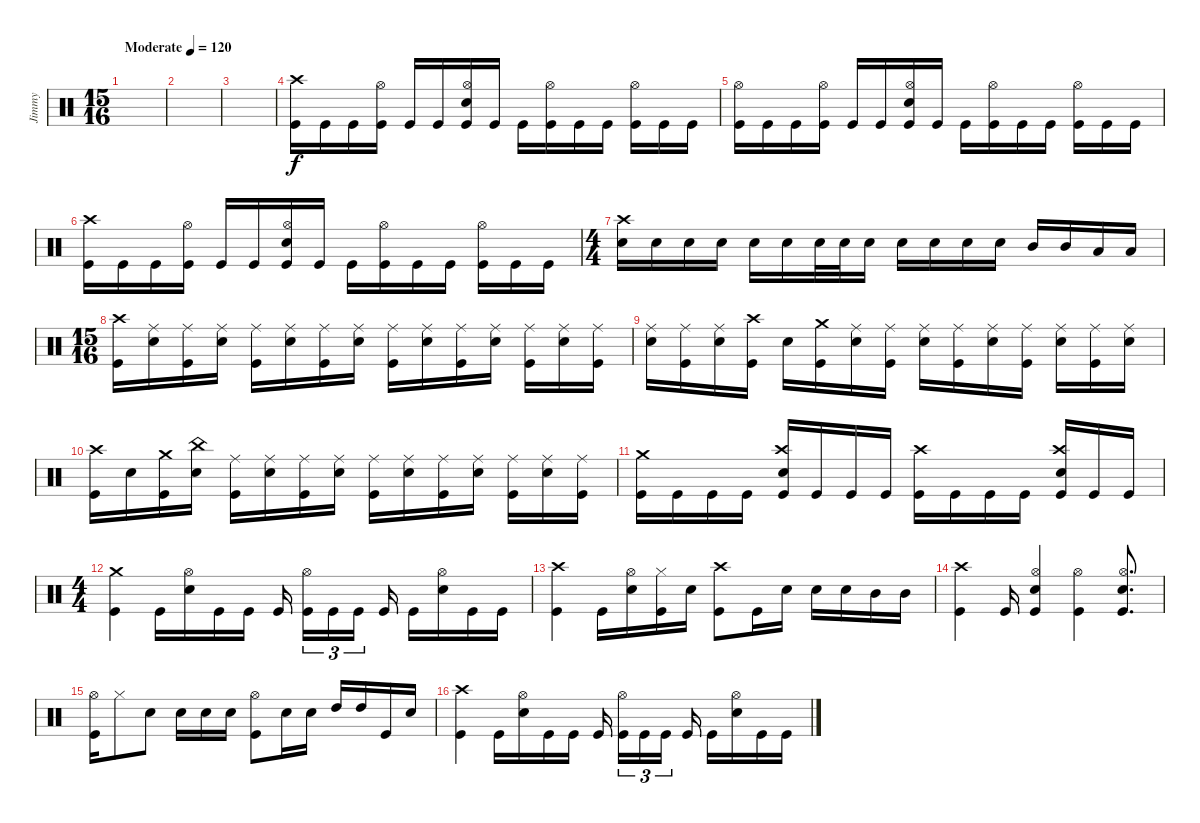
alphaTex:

\track ("Jimmy" "Jimmy") {instrument percussion}
\staff {score}
\articulation defaults
\ts (15 16)
\tempo (120 "Moderate")
\clef neutral
\ks c
|
|
|
("Kick (hit)" "Crash high (hit)").16 "Kick (hit)".16 "Kick (hit)".16 ("Kick (hit)" "Hi-Hat (open)").16 "Kick (hit)".16 "Kick (hit)".16 ("Hi-Hat (open)" "Kick (hit)" "Snare (hit) 2").16 "Kick (hit)".16 "Kick (hit)".16 ("Kick (hit)" "Hi-Hat (open)").16 "Kick (hit)".16 "Kick (hit)".16 ("Kick (hit)" "Hi-Hat (open)").16 "Kick (hit)".16 "Kick (hit)".16 |
("Kick (hit)" "Hi-Hat (open)").16 "Kick (hit)".16 "Kick (hit)".16 ("Kick (hit)" "Hi-Hat (open)").16 "Kick (hit)".16 "Kick (hit)".16 ("Hi-Hat (open)" "Kick (hit)" "Snare (hit) 2").16 "Kick (hit)".16 "Kick (hit)".16 ("Kick (hit)" "Hi-Hat (open)").16 "Kick (hit)".16 "Kick (hit)".16 ("Kick (hit)" "Hi-Hat (open)").16 "Kick (hit)".16 "Kick (hit)".16 |
("Kick (hit)" "Crash high (hit)").16 "Kick (hit)".16 "Kick (hit)".16 ("Kick (hit)" "Hi-Hat (open)").16 "Kick (hit)".16 "Kick (hit)".16 ("Hi-Hat (open)" "Kick (hit)" "Snare (hit) 2").16 "Kick (hit)".16 "Kick (hit)".16 ("Kick (hit)" "Hi-Hat (open)").16 "Kick (hit)".16 "Kick (hit)".16 ("Kick (hit)" "Hi-Hat (open)").16 "Kick (hit)".16 "Kick (hit)".16 |
\ts (4 4)
("Snare (hit) 2" "Crash high (hit)").16 "Snare (hit) 2".16 "Snare (hit) 2".16 "Snare (hit) 2".16 "Snare (hit) 2".16 "Snare (hit) 2".16 "Snare (hit) 2".32 "Snare (hit) 2".32 "Snare (hit) 2".16 "Snare (hit) 2".16 "Snare (hit) 2".16 "Snare (hit) 2".16 "Snare (hit) 2".16 "Mid Tom (hit)".16 "Mid Tom (hit)".16 "Low Tom (hit)".16 "Low Tom (hit)".16 |
\ts (15 16)
("Crash high (hit)" "Kick (hit)").16 ("Snare (hit) 2" "Ride (middle)").16 ("Kick (hit)" "Ride (middle)").16 ("Snare (hit) 2" "Ride (middle)").16 ("Kick (hit)" "Ride (middle)").16 ("Snare (hit) 2" "Ride (middle)").16 ("Kick (hit)" "Ride (middle)").16 ("Snare (hit) 2" "Ride (middle)").16 ("Kick (hit)" "Ride (middle)").16 ("Snare (hit) 2" "Ride (middle)").16 ("Kick (hit)" "Ride (middle)").16 ("Snare (hit) 2" "Ride (middle)").16 ("Kick (hit)" "Ride (middle)").16 ("Snare (hit) 2" "Ride (middle)").16 ("Kick (hit)" "Ride (middle)").16 |
("Ride (middle)" "Snare (hit) 2").16 ("Kick (hit)" "Ride (middle)").16 ("Snare (hit) 2" "Ride (middle)").16 ("Kick (hit)" "Crash high (hit)").16 "Snare (hit) 2".16 ("Kick (hit)" "Crash medium (hit)").16 ("Snare (hit) 2" "Ride (middle)").16 ("Kick (hit)" "Ride (middle)").16 ("Snare (hit) 2" "Ride (middle)").16 ("Kick (hit)" "Ride (middle)").16 ("Snare (hit) 2" "Ride (middle)").16 ("Kick (hit)" "Ride (middle)").16 ("Snare (hit) 2" "Ride (middle)").16 ("Kick (hit)" "Ride (middle)").16 ("Snare (hit) 2" "Ride (middle)").16 |
("Kick (hit)" "Crash high (hit)").16 "Snare (hit) 2".16 ("Kick (hit)" "Crash medium (hit)").16 ("Snare (hit) 2" "China (hit)").16 ("Kick (hit)" "Ride (middle)").16 ("Snare (hit) 2" "Ride (middle)").16 ("Kick (hit)" "Ride (middle)").16 ("Snare (hit) 2" "Ride (middle)").16 ("Kick (hit)" "Ride (middle)").16 ("Snare (hit) 2" "Ride (middle)").16 ("Kick (hit)" "Ride (middle)").16 ("Snare (hit) 2" "Ride (middle)").16 ("Kick (hit)" "Ride (middle)").16 ("Snare (hit) 2" "Ride (middle)").16 ("Kick (hit)" "Ride (middle)").16 |
("Kick (hit)" "Crash medium (hit)").16 "Kick (hit)".16 "Kick (hit)".16 "Kick (hit)".16 ("Kick (hit)" "Crash high (hit)" "Snare (hit) 2").16 "Kick (hit)".16 "Kick (hit)".16 "Kick (hit)".16 ("Kick (hit)" "Crash high (hit)").16 "Kick (hit)".16 "Kick (hit)".16 "Kick (hit)".16 ("Kick (hit)" "Crash high (hit)" "Snare (hit) 2").16 "Kick (hit)".16 "Kick (hit)".16 |
\ts (4 4)
("Kick (hit)" "Crash medium (hit)").4 "Kick (hit)".16 ("Snare (hit) 2" "Hi-Hat (open)").16 "Kick (hit)".16 "Kick (hit)".16 "Kick (hit)".16{beam splitsecondary} ("Kick (hit)" "Hi-Hat (open)").16{tu (3 2)} "Kick (hit)".16{tu (3 2)} "Kick (hit)".16{tu (3 2) beam splitsecondary} "Kick (hit)".16 "Kick (hit)".16 ("Snare (hit) 2" "Hi-Hat (open)").16 "Kick (hit)".16 "Kick (hit)".16 |
("Kick (hit)" "Crash high (hit)").4 "Kick (hit)".16 ("Snare (hit) 2" "Hi-Hat (open)").16 ("Kick (hit)" "Hi-Hat (closed)").16 "Snare (hit) 2".16 ("Kick (hit)" "Crash high (hit)").8 "Kick (hit)".16 "Snare (hit) 2".16 "Snare (hit) 2".16 "Snare (hit) 2".16 "Mid Tom (hit)".16 "Mid Tom (hit)".16 |
("Crash high (hit)" "Kick (hit)").4 "Kick (hit)".16 ("Hi-Hat (open)" "Snare (hit) 2" "Kick (hit)").4 ("Hi-Hat (open)" "Kick (hit)").4 ("Snare (hit) 2" "Hi-Hat (open)" "Kick (hit)").8{d} |
("Hi-Hat (open)" "Kick (hit)").16 "Hi-Hat (closed)".8 "Snare (hit) 2".8 "Snare (hit) 2".16 "Snare (hit) 2".16 "Snare (hit) 2".16 ("Hi-Hat (open)" "Kick (hit)").8 "Snare (hit) 2".16 "Snare (hit) 2".16 "High Tom (hit)".16 "High Tom (hit)".16 "Kick (hit)".16 "Snare (hit) 2".16 |
("Kick (hit)" "Crash high (hit)").4 "Kick (hit)".16 ("Snare (hit) 2" "Hi-Hat (open)").16 "Kick (hit)".16 "Kick (hit)".16 "Kick (hit)".16{beam splitsecondary} ("Kick (hit)" "Hi-Hat (open)").16{tu (3 2)} "Kick (hit)".16{tu (3 2)} "Kick (hit)".16{tu (3 2) beam splitsecondary} "Kick (hit)".16 "Kick (hit)".16 ("Snare (hit) 2" "Hi-Hat (open)").16 "Kick (hit)".16 "Kick (hit)".16
